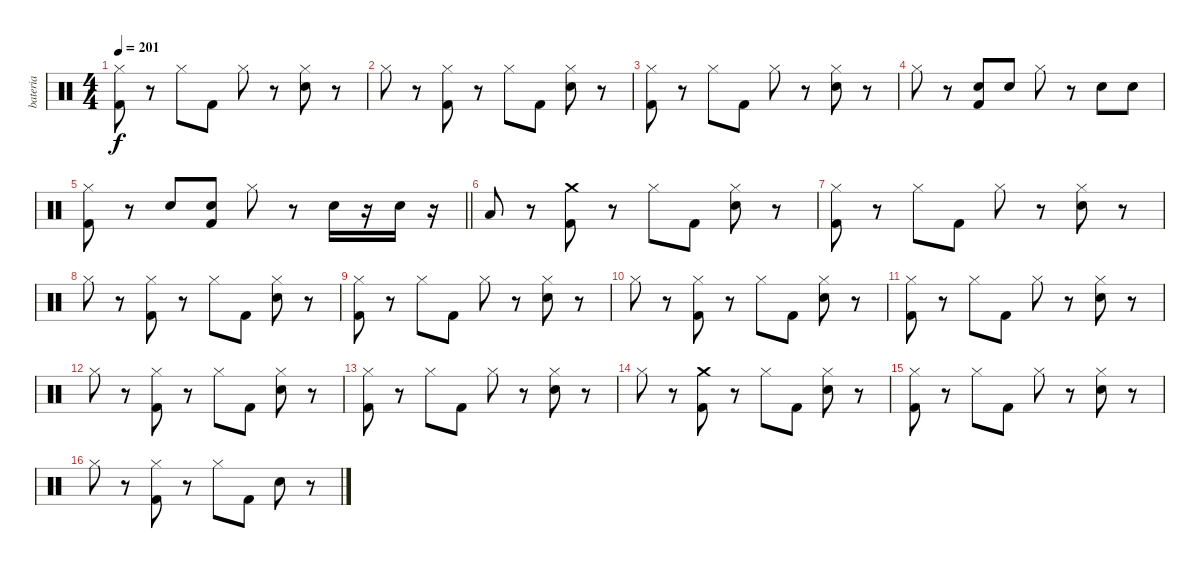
\track ("bateria" "bateria") {solo instrument percussion}
\staff {score}
\articulation defaults
\ts (4 4)
\tempo 201
\clef neutral
\ks c
("Hi-Hat (closed)" "Kick (hit) 2").8{dy f} r.8 "Hi-Hat (closed)".8 "Kick (hit) 2".8 "Hi-Hat (closed)".8 r.8 ("Hi-Hat (closed)" "Electric Snare (hit)").8 r.8 |
"Hi-Hat (closed)".8 r.8 ("Hi-Hat (closed)" "Kick (hit) 2").8 r.8 "Hi-Hat (closed)".8 "Kick (hit) 2".8 ("Hi-Hat (closed)" "Electric Snare (hit)").8 r.8 |
("Hi-Hat (closed)" "Kick (hit) 2").8 r.8 "Hi-Hat (closed)".8 "Kick (hit) 2".8 "Hi-Hat (closed)".8 r.8 ("Hi-Hat (closed)" "Electric Snare (hit)").8 r.8 |
"Hi-Hat (closed)".8 r.8 ("Electric Snare (hit)" "Kick (hit) 2").8 "Electric Snare (hit)".8 "Hi-Hat (closed)".8 r.8 "Electric Snare (hit)".8 "Electric Snare (hit)".8 |
\barLineRight lightlight
("Hi-Hat (closed)" "Kick (hit) 2").8 r.8 "Electric Snare (hit)".8 ("Electric Snare (hit)" "Kick (hit) 2").8 "Hi-Hat (closed)".8 r.8 "Electric Snare (hit)".16 r.16 "Electric Snare (hit)".16 r.16 |
"Low Tom (hit)".8 r.8 ("Crash medium (hit)" "Kick (hit) 2").8 r.8 "Hi-Hat (closed)".8 "Kick (hit) 2".8 ("Hi-Hat (closed)" "Electric Snare (hit)").8 r.8 |
("Hi-Hat (closed)" "Kick (hit) 2").8 r.8 "Hi-Hat (closed)".8 "Kick (hit) 2".8 "Hi-Hat (closed)".8 r.8 ("Hi-Hat (closed)" "Electric Snare (hit)").8 r.8 |
"Hi-Hat (closed)".8 r.8 ("Hi-Hat (closed)" "Kick (hit) 2").8 r.8 "Hi-Hat (closed)".8 "Kick (hit) 2".8 ("Hi-Hat (closed)" "Electric Snare (hit)").8 r.8 |
("Hi-Hat (closed)" "Kick (hit) 2").8 r.8 "Hi-Hat (closed)".8 "Kick (hit) 2".8 "Hi-Hat (closed)".8 r.8 ("Hi-Hat (closed)" "Electric Snare (hit)").8 r.8 |
"Hi-Hat (closed)".8 r.8 ("Hi-Hat (closed)" "Kick (hit) 2").8 r.8 "Hi-Hat (closed)".8 "Kick (hit) 2".8 ("Hi-Hat (closed)" "Electric Snare (hit)").8 r.8 |
("Hi-Hat (closed)" "Kick (hit) 2").8 r.8 "Hi-Hat (closed)".8 "Kick (hit) 2".8 "Hi-Hat (closed)".8 r.8 ("Hi-Hat (closed)" "Electric Snare (hit)").8 r.8 |
"Hi-Hat (closed)".8 r.8 ("Hi-Hat (closed)" "Kick (hit) 2").8 r.8 "Hi-Hat (closed)".8 "Kick (hit) 2".8 ("Hi-Hat (closed)" "Electric Snare (hit)").8 r.8 |
("Hi-Hat (closed)" "Kick (hit) 2").8 r.8 "Hi-Hat (closed)".8 "Kick (hit) 2".8 "Hi-Hat (closed)".8 r.8 ("Hi-Hat (closed)" "Electric Snare (hit)").8 r.8 |
"Hi-Hat (closed)".8 r.8 ("Crash medium (hit)" "Kick (hit) 2").8 r.8 "Hi-Hat (closed)".8 "Kick (hit) 2".8 ("Hi-Hat (closed)" "Electric Snare (hit)").8 r.8 |
("Hi-Hat (closed)" "Kick (hit) 2").8 r.8 "Hi-Hat (closed)".8 "Kick (hit) 2".8 "Hi-Hat (closed)".8 r.8 ("Hi-Hat (closed)" "Electric Snare (hit)").8 r.8 |
"Hi-Hat (closed)".8 r.8 ("Hi-Hat (closed)" "Kick (hit) 2").8 r.8 "Hi-Hat (closed)".8 "Kick (hit) 2".8 "Snare (hit) 2".8 r.8
